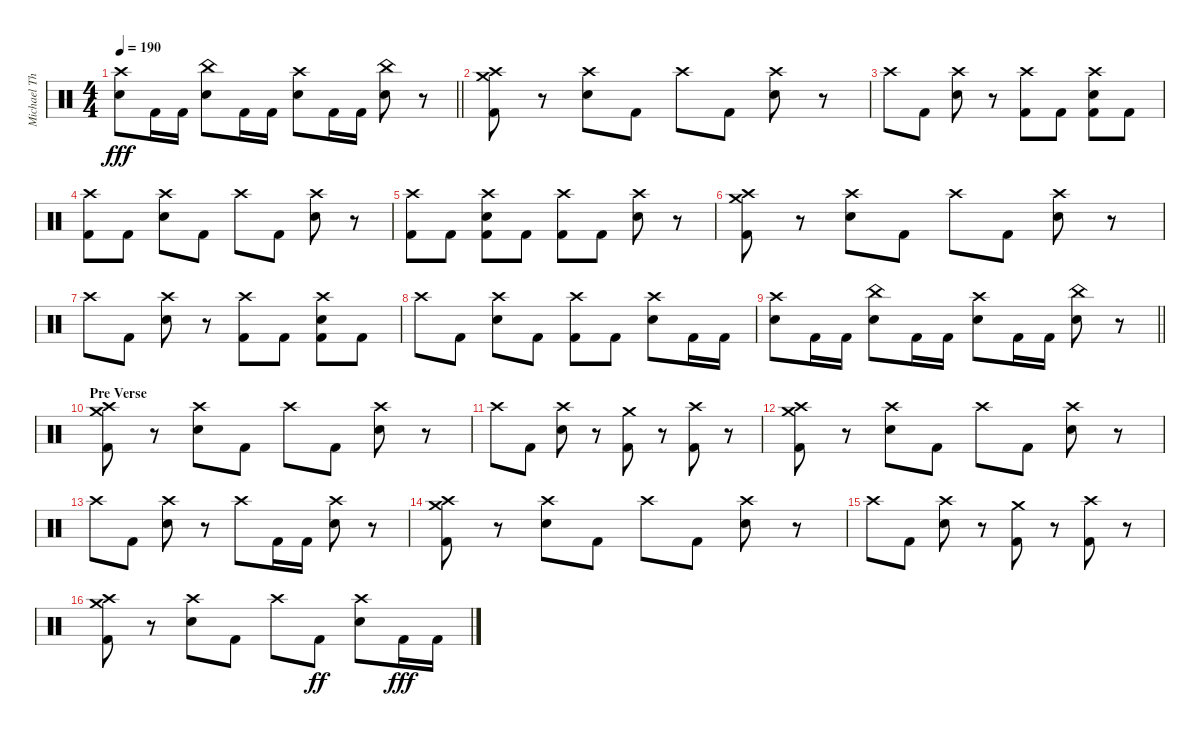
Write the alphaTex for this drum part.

\track ("Michael Thomas Жжёт!" "Michael Th") {instrument percussion}
\staff {score}
\articulation defaults
\ts (4 4)
\tempo 190
\clef neutral
\barLineRight lightlight
\ks c
("Crash high (hit)" "Electric Snare (hit)").8{dy fff} "Kick (hit) 2".16 "Kick (hit) 2".16 ("China (hit)" "Electric Snare (hit)").8 "Kick (hit) 2".16 "Kick (hit) 2".16 ("Crash high (hit)" "Electric Snare (hit)").8 "Kick (hit) 2".16 "Kick (hit) 2".16 ("China (hit)" "Electric Snare (hit)").8 r.8 |
("Crash high (hit)" "Crash medium (hit)" "Kick (hit) 2").8 r.8 ("Crash high (hit)" "Electric Snare (hit)").8 "Kick (hit) 2".8 "Crash high (hit)".8 "Kick (hit) 2".8 ("Crash high (hit)" "Electric Snare (hit)").8 r.8 |
"Crash high (hit)".8 "Kick (hit) 2".8 ("Crash high (hit)" "Electric Snare (hit)").8 r.8 ("Crash high (hit)" "Kick (hit) 2").8 "Kick (hit) 2".8 ("Crash high (hit)" "Electric Snare (hit)" "Kick (hit) 2").8 "Kick (hit) 2".8 |
("Crash high (hit)" "Kick (hit) 2").8 "Kick (hit) 2".8 ("Crash high (hit)" "Electric Snare (hit)").8 "Kick (hit) 2".8 "Crash high (hit)".8 "Kick (hit) 2".8 ("Crash high (hit)" "Electric Snare (hit)").8 r.8 |
("Crash high (hit)" "Kick (hit) 2").8 "Kick (hit) 2".8 ("Crash high (hit)" "Electric Snare (hit)" "Kick (hit) 2").8 "Kick (hit) 2".8 ("Crash high (hit)" "Kick (hit) 2").8 "Kick (hit) 2".8 ("Crash high (hit)" "Electric Snare (hit)").8 r.8 |
("Crash high (hit)" "Crash medium (hit)" "Kick (hit) 2").8 r.8 ("Crash high (hit)" "Electric Snare (hit)").8 "Kick (hit) 2".8 "Crash high (hit)".8 "Kick (hit) 2".8 ("Crash high (hit)" "Electric Snare (hit)").8 r.8 |
"Crash high (hit)".8 "Kick (hit) 2".8 ("Crash high (hit)" "Electric Snare (hit)").8 r.8 ("Crash high (hit)" "Kick (hit) 2").8 "Kick (hit) 2".8 ("Crash high (hit)" "Electric Snare (hit)" "Kick (hit) 2").8 "Kick (hit) 2".8 |
"Crash high (hit)".8 "Kick (hit) 2".8 ("Crash high (hit)" "Electric Snare (hit)").8 "Kick (hit) 2".8 ("Crash high (hit)" "Kick (hit) 2").8 "Kick (hit) 2".8 ("Crash high (hit)" "Electric Snare (hit)").8 "Kick (hit) 2".16 "Kick (hit) 2".16 |
\barLineRight lightlight
("Crash high (hit)" "Electric Snare (hit)").8 "Kick (hit) 2".16 "Kick (hit) 2".16 ("China (hit)" "Electric Snare (hit)").8 "Kick (hit) 2".16 "Kick (hit) 2".16 ("Crash high (hit)" "Electric Snare (hit)").8 "Kick (hit) 2".16 "Kick (hit) 2".16 ("China (hit)" "Electric Snare (hit)").8 r.8 |
\section ("" "Pre Verse")
("Crash high (hit)" "Crash medium (hit)" "Kick (hit) 2").8 r.8 ("Crash high (hit)" "Electric Snare (hit)").8 "Kick (hit) 2".8 "Crash high (hit)".8 "Kick (hit) 2".8 ("Crash high (hit)" "Electric Snare (hit)").8 r.8 |
"Crash high (hit)".8 "Kick (hit) 2".8 ("Crash high (hit)" "Electric Snare (hit)").8 r.8 ("Crash medium (hit)" "Kick (hit) 2").8 r.8 ("Crash high (hit)" "Kick (hit) 2").8 r.8 |
("Crash high (hit)" "Crash medium (hit)" "Kick (hit) 2").8 r.8 ("Crash high (hit)" "Electric Snare (hit)").8 "Kick (hit) 2".8 "Crash high (hit)".8 "Kick (hit) 2".8 ("Crash high (hit)" "Electric Snare (hit)").8 r.8 |
"Crash high (hit)".8 "Kick (hit) 2".8 ("Crash high (hit)" "Electric Snare (hit)").8 r.8 "Crash high (hit)".8 "Kick (hit) 2".16 "Kick (hit) 2".16 ("Crash high (hit)" "Electric Snare (hit)").8 r.8 |
("Crash high (hit)" "Crash medium (hit)" "Kick (hit) 2").8 r.8 ("Crash high (hit)" "Electric Snare (hit)").8 "Kick (hit) 2".8 "Crash high (hit)".8 "Kick (hit) 2".8 ("Crash high (hit)" "Electric Snare (hit)").8 r.8 |
"Crash high (hit)".8 "Kick (hit) 2".8 ("Crash high (hit)" "Electric Snare (hit)").8 r.8 ("Crash medium (hit)" "Kick (hit) 2").8 r.8 ("Crash high (hit)" "Kick (hit) 2").8 r.8 |
("Crash high (hit)" "Crash medium (hit)" "Kick (hit) 2").8 r.8 ("Crash high (hit)" "Electric Snare (hit)").8 "Kick (hit) 2".8 "Crash high (hit)".8 "Kick (hit) 2".8{dy ff} ("Crash high (hit)" "Electric Snare (hit)").8 "Kick (hit) 2".16{dy fff} "Kick (hit) 2".16
